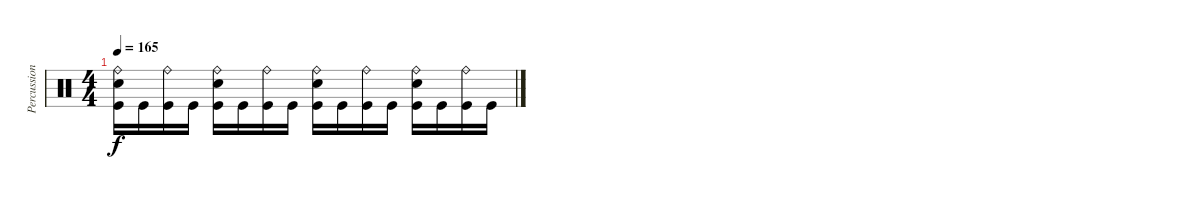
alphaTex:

\track ("Percussions" "Percussion") {instrument percussion}
\staff {score}
\articulation defaults
\ts (4 4)
\tempo 165
\clef neutral
\ks c
("Kick (hit)" "Electric Snare (hit)" "Ride (bell)").16{dy f} "Kick (hit)".16 ("Kick (hit)" "Ride (bell)").16 "Kick (hit)".16 ("Kick (hit)" "Electric Snare (hit)" "Ride (bell)").16 "Kick (hit)".16 ("Kick (hit)" "Ride (bell)").16 "Kick (hit)".16 ("Kick (hit)" "Electric Snare (hit)" "Ride (bell)").16 "Kick (hit)".16 ("Kick (hit)" "Ride (bell)").16 "Kick (hit)".16 ("Kick (hit)" "Electric Snare (hit)" "Ride (bell)").16 "Kick (hit)".16 ("Kick (hit)" "Ride (bell)").16 "Kick (hit)".16
